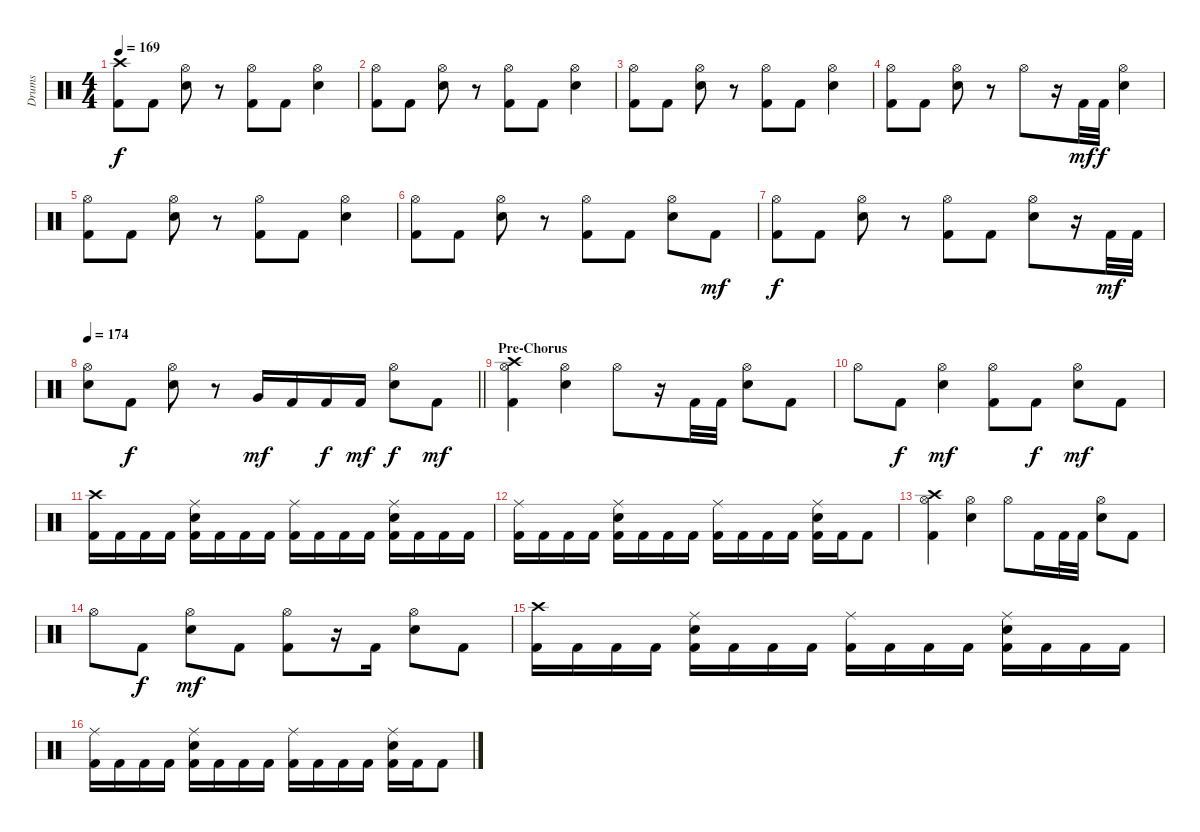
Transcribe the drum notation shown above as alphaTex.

\track ("Drums" "Drums") {instrument percussion}
\staff {score}
\articulation defaults
\ts (4 4)
\tempo 169
\clef neutral
\ks c
("Crash high (hit)" "Kick (hit) 2").8{dy f} "Kick (hit) 2".8 ("Hi-Hat (open)" "Snare (hit) 2").8 r.8 ("Hi-Hat (open)" "Kick (hit) 2").8 "Kick (hit) 2".8 ("Hi-Hat (open)" "Snare (hit) 2").4 |
("Hi-Hat (open)" "Kick (hit) 2").8 "Kick (hit) 2".8 ("Hi-Hat (open)" "Snare (hit) 2").8 r.8 ("Hi-Hat (open)" "Kick (hit) 2").8 "Kick (hit) 2".8 ("Hi-Hat (open)" "Snare (hit) 2").4 |
("Hi-Hat (open)" "Kick (hit) 2").8 "Kick (hit) 2".8 ("Hi-Hat (open)" "Snare (hit) 2").8 r.8 ("Hi-Hat (open)" "Kick (hit) 2").8 "Kick (hit) 2".8 ("Hi-Hat (open)" "Snare (hit) 2").4 |
("Hi-Hat (open)" "Kick (hit) 2").8 "Kick (hit) 2".8 ("Hi-Hat (open)" "Snare (hit) 2").8 r.8 "Hi-Hat (open)".8 r.16 "Kick (hit) 2".32{dy mf} "Kick (hit) 2".32{dy f} ("Hi-Hat (open)" "Snare (hit) 2").4 |
("Hi-Hat (open)" "Kick (hit) 2").8 "Kick (hit) 2".8 ("Hi-Hat (open)" "Snare (hit) 2").8 r.8 ("Hi-Hat (open)" "Kick (hit) 2").8 "Kick (hit) 2".8 ("Hi-Hat (open)" "Snare (hit) 2").4 |
("Hi-Hat (open)" "Kick (hit) 2").8 "Kick (hit) 2".8 ("Hi-Hat (open)" "Snare (hit) 2").8 r.8 ("Hi-Hat (open)" "Kick (hit) 2").8 "Kick (hit) 2".8 ("Hi-Hat (open)" "Snare (hit) 2").8 "Kick (hit) 2".8{dy mf} |
("Hi-Hat (open)" "Kick (hit) 2").8{dy f} "Kick (hit) 2".8 ("Hi-Hat (open)" "Snare (hit) 2").8 r.8 ("Hi-Hat (open)" "Kick (hit) 2").8 "Kick (hit) 2".8 ("Hi-Hat (open)" "Snare (hit) 2").8 r.16 "Kick (hit) 2".32{dy mf} "Kick (hit) 2".32 |
\tempo 174
\barLineRight lightlight
("Hi-Hat (open)" "Snare (hit) 2").8 "Kick (hit) 2".8{dy f} ("Hi-Hat (open)" "Snare (hit) 2").8 r.8 "Very Low Tom (hit)".16{dy mf} "Kick (hit) 2".16 "Kick (hit) 2".16{dy f} "Kick (hit) 2".16{dy mf} ("Hi-Hat (open)" "Snare (hit) 2").8{dy f} "Kick (hit) 2".8{dy mf} |
\section ("" "Pre-Chorus")
("Crash high (hit)" "Hi-Hat (open)" "Kick (hit) 2").4 ("Hi-Hat (open)" "Snare (hit) 2").4 "Hi-Hat (open)".8 r.16 "Kick (hit) 2".32 "Kick (hit) 2".32 ("Hi-Hat (open)" "Snare (hit) 2").8 "Kick (hit) 2".8 |
"Hi-Hat (open)".8 "Kick (hit) 2".8{dy f} ("Hi-Hat (open)" "Snare (hit) 2").4{dy mf} ("Hi-Hat (open)" "Kick (hit) 2").8 "Kick (hit) 2".8{dy f} ("Hi-Hat (open)" "Snare (hit) 2").8{dy mf} "Kick (hit) 2".8 |
("Crash high (hit)" "Kick (hit) 2").16 "Kick (hit) 2".16 "Kick (hit) 2".16 "Kick (hit) 2".16 ("Ride (middle)" "Snare (hit) 2" "Kick (hit) 2").16 "Kick (hit) 2".16 "Kick (hit) 2".16 "Kick (hit) 2".16 ("Ride (middle)" "Kick (hit) 2").16 "Kick (hit) 2".16 "Kick (hit) 2".16 "Kick (hit) 2".16 ("Ride (middle)" "Snare (hit) 2" "Kick (hit) 2").16 "Kick (hit) 2".16 "Kick (hit) 2".16 "Kick (hit) 2".16 |
("Ride (middle)" "Kick (hit) 2").16 "Kick (hit) 2".16 "Kick (hit) 2".16 "Kick (hit) 2".16 ("Ride (middle)" "Snare (hit) 2" "Kick (hit) 2").16 "Kick (hit) 2".16 "Kick (hit) 2".16 "Kick (hit) 2".16 ("Ride (middle)" "Kick (hit) 2").16 "Kick (hit) 2".16 "Kick (hit) 2".16 "Kick (hit) 2".16 ("Ride (middle)" "Snare (hit) 2" "Kick (hit) 2").16 "Kick (hit) 2".16 "Kick (hit) 2".8 |
("Crash high (hit)" "Hi-Hat (open)" "Kick (hit) 2").4 ("Hi-Hat (open)" "Snare (hit) 2").4 "Hi-Hat (open)".8 "Kick (hit) 2".16 "Kick (hit) 2".32 "Kick (hit) 2".32 ("Hi-Hat (open)" "Snare (hit) 2").8 "Kick (hit) 2".8 |
"Hi-Hat (open)".8 "Kick (hit) 2".8{dy f} ("Hi-Hat (open)" "Snare (hit) 2").8{dy mf} "Kick (hit) 2".8 ("Hi-Hat (open)" "Kick (hit) 2").8 r.16 "Kick (hit) 2".16 ("Hi-Hat (open)" "Snare (hit) 2").8 "Kick (hit) 2".8 |
("Crash high (hit)" "Kick (hit) 2").16 "Kick (hit) 2".16 "Kick (hit) 2".16 "Kick (hit) 2".16 ("Ride (middle)" "Snare (hit) 2" "Kick (hit) 2").16 "Kick (hit) 2".16 "Kick (hit) 2".16 "Kick (hit) 2".16 ("Ride (middle)" "Kick (hit) 2").16 "Kick (hit) 2".16 "Kick (hit) 2".16 "Kick (hit) 2".16 ("Ride (middle)" "Snare (hit) 2" "Kick (hit) 2").16 "Kick (hit) 2".16 "Kick (hit) 2".16 "Kick (hit) 2".16 |
("Ride (middle)" "Kick (hit) 2").16 "Kick (hit) 2".16 "Kick (hit) 2".16 "Kick (hit) 2".16 ("Ride (middle)" "Snare (hit) 2" "Kick (hit) 2").16 "Kick (hit) 2".16 "Kick (hit) 2".16 "Kick (hit) 2".16 ("Ride (middle)" "Kick (hit) 2").16 "Kick (hit) 2".16 "Kick (hit) 2".16 "Kick (hit) 2".16 ("Ride (middle)" "Snare (hit) 2" "Kick (hit) 2").16 "Kick (hit) 2".16 "Kick (hit) 2".8
